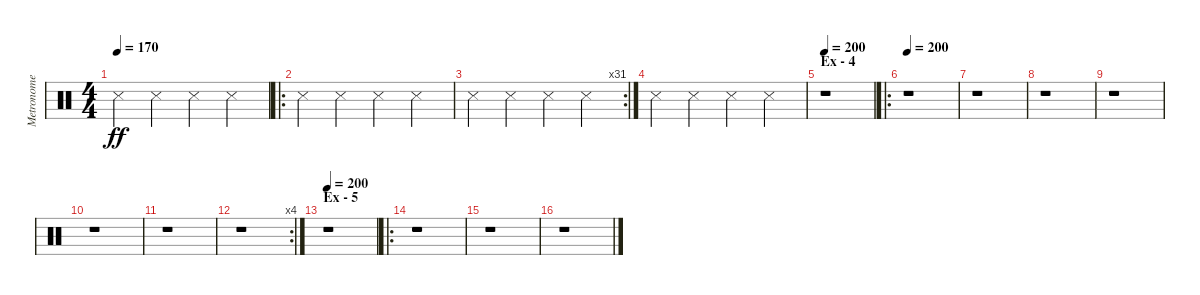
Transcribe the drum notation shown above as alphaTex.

\track ("Metronome" "Metronome") {instrument percussion}
\staff {score}
\articulation defaults
\ts (4 4)
\tempo 170
\clef neutral
\ks c "Metronome (hit)".4{dy ff} "Metronome (hit)".4 "Metronome (hit)".4 "Metronome (hit)".4
|
\ro "Metronome (hit)".4 "Metronome (hit)".4 "Metronome (hit)".4 "Metronome (hit)".4
|
\rc 31 "Metronome (hit)".4 "Metronome (hit)".4 "Metronome (hit)".4 "Metronome (hit)".4
|
"Metronome (hit)".4 "Metronome (hit)".4 "Metronome (hit)".4 "Metronome (hit)".4 |
\section ("" "Ex - 4")
\tempo 200
r.1 |
\ro
\tempo 200
r.1 |
r.1 |
r.1 |
r.1 |
r.1 |
r.1 |
\rc 4
r.1 |
\section ("" "Ex - 5")
\tempo 200
r.1 |
\ro
r.1 |
r.1 |
r.1
